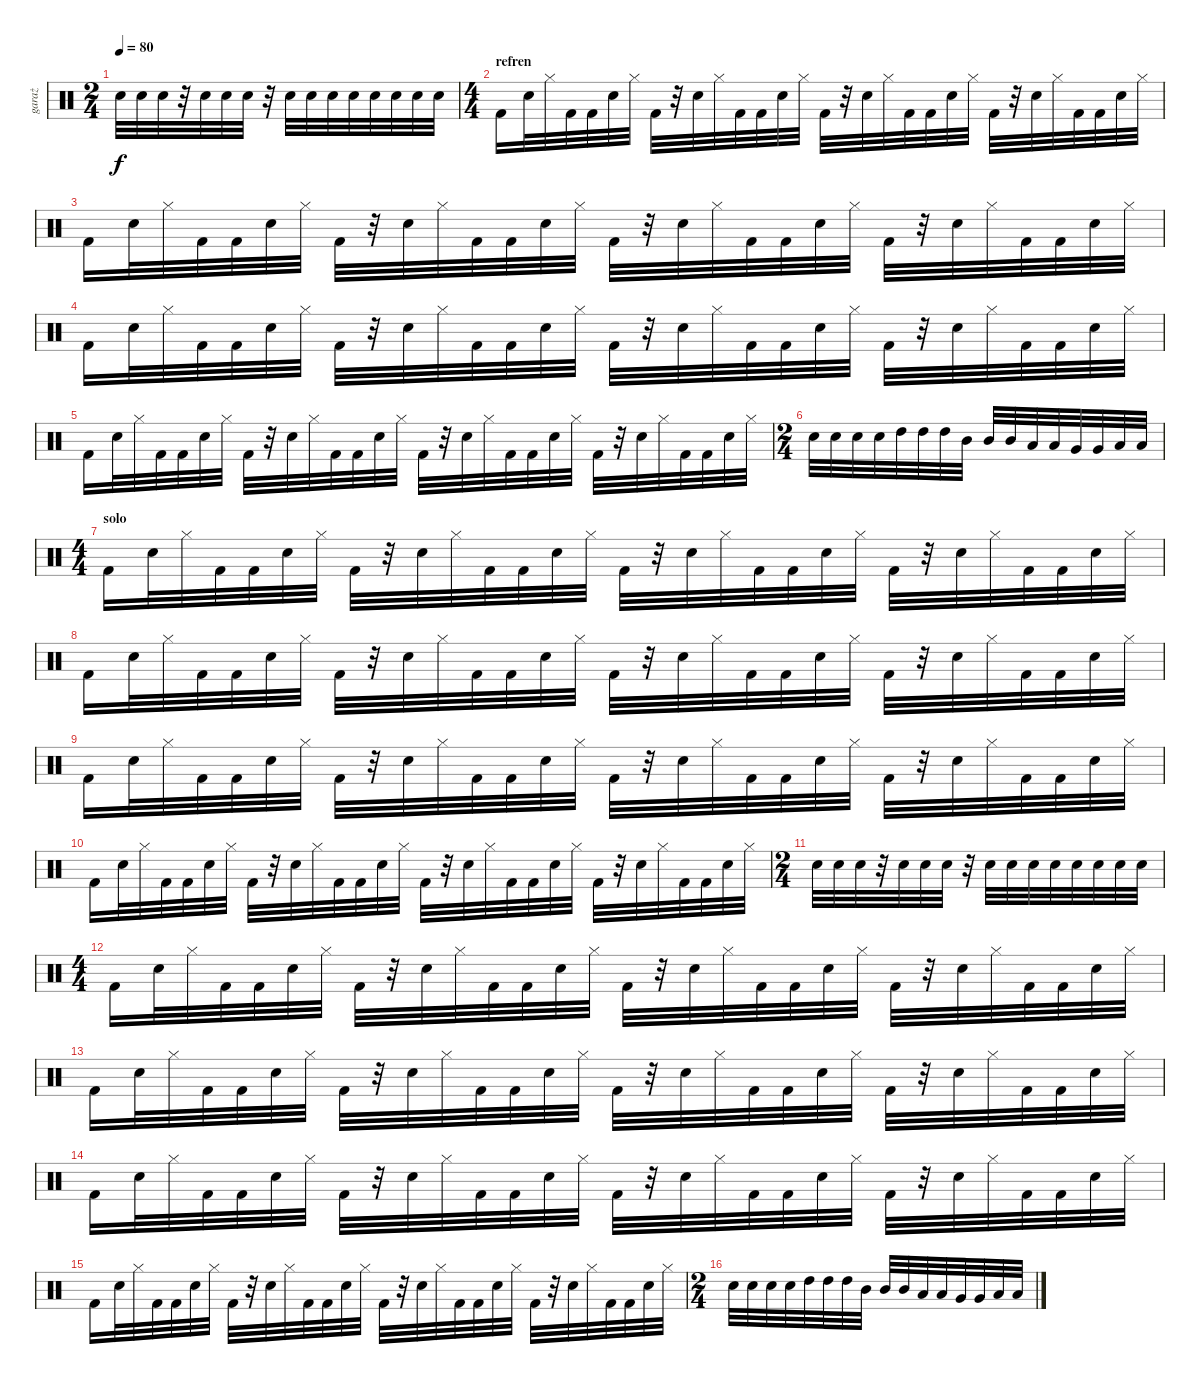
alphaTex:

\track ("garaż" "garaż") {instrument percussion}
\staff {score}
\articulation defaults
\ts (2 4)
\tempo 80
\clef neutral
\ks c "Snare (hit) 2".32{dy f} "Snare (hit) 2".32 "Snare (hit) 2".32
r.32 "Snare (hit) 2".32 "Snare (hit) 2".32 "Snare (hit) 2".32 r.32 "Snare (hit) 2".32 "Snare (hit) 2".32 "Snare (hit) 2".32 "Snare (hit) 2".32 "Snare (hit) 2".32 "Snare (hit) 2".32 "Snare (hit) 2".32 "Snare (hit) 2".32 |
\ts (4 4)
\section ("" "refren")
"Kick (hit) 2".16 "Snare (hit) 2".32 "Hi-Hat (closed)".32 "Kick (hit) 2".32 "Kick (hit) 2".32 "Snare (hit) 2".32 "Hi-Hat (closed)".32 "Kick (hit) 2".32 r.32 "Snare (hit) 2".32 "Hi-Hat (closed)".32 "Kick (hit) 2".32 "Kick (hit) 2".32 "Snare (hit) 2".32 "Hi-Hat (closed)".32 "Kick (hit) 2".32 r.32 "Snare (hit) 2".32 "Hi-Hat (closed)".32 "Kick (hit) 2".32 "Kick (hit) 2".32 "Snare (hit) 2".32 "Hi-Hat (closed)".32 "Kick (hit) 2".32 r.32 "Snare (hit) 2".32 "Hi-Hat (closed)".32 "Kick (hit) 2".32 "Kick (hit) 2".32 "Snare (hit) 2".32 "Hi-Hat (closed)".32 |
"Kick (hit) 2".16 "Snare (hit) 2".32 "Hi-Hat (closed)".32 "Kick (hit) 2".32 "Kick (hit) 2".32 "Snare (hit) 2".32 "Hi-Hat (closed)".32 "Kick (hit) 2".32 r.32 "Snare (hit) 2".32 "Hi-Hat (closed)".32 "Kick (hit) 2".32 "Kick (hit) 2".32 "Snare (hit) 2".32 "Hi-Hat (closed)".32 "Kick (hit) 2".32 r.32 "Snare (hit) 2".32 "Hi-Hat (closed)".32 "Kick (hit) 2".32 "Kick (hit) 2".32 "Snare (hit) 2".32 "Hi-Hat (closed)".32 "Kick (hit) 2".32 r.32 "Snare (hit) 2".32 "Hi-Hat (closed)".32 "Kick (hit) 2".32 "Kick (hit) 2".32 "Snare (hit) 2".32 "Hi-Hat (closed)".32 |
"Kick (hit) 2".16 "Snare (hit) 2".32 "Hi-Hat (closed)".32 "Kick (hit) 2".32 "Kick (hit) 2".32 "Snare (hit) 2".32 "Hi-Hat (closed)".32 "Kick (hit) 2".32 r.32 "Snare (hit) 2".32 "Hi-Hat (closed)".32 "Kick (hit) 2".32 "Kick (hit) 2".32 "Snare (hit) 2".32 "Hi-Hat (closed)".32 "Kick (hit) 2".32 r.32 "Snare (hit) 2".32 "Hi-Hat (closed)".32 "Kick (hit) 2".32 "Kick (hit) 2".32 "Snare (hit) 2".32 "Hi-Hat (closed)".32 "Kick (hit) 2".32 r.32 "Snare (hit) 2".32 "Hi-Hat (closed)".32 "Kick (hit) 2".32 "Kick (hit) 2".32 "Snare (hit) 2".32 "Hi-Hat (closed)".32 |
"Kick (hit) 2".16 "Snare (hit) 2".32 "Hi-Hat (closed)".32 "Kick (hit) 2".32 "Kick (hit) 2".32 "Snare (hit) 2".32 "Hi-Hat (closed)".32 "Kick (hit) 2".32 r.32 "Snare (hit) 2".32 "Hi-Hat (closed)".32 "Kick (hit) 2".32 "Kick (hit) 2".32 "Snare (hit) 2".32 "Hi-Hat (closed)".32 "Kick (hit) 2".32 r.32 "Snare (hit) 2".32 "Hi-Hat (closed)".32 "Kick (hit) 2".32 "Kick (hit) 2".32 "Snare (hit) 2".32 "Hi-Hat (closed)".32 "Kick (hit) 2".32 r.32 "Snare (hit) 2".32 "Hi-Hat (closed)".32 "Kick (hit) 2".32 "Kick (hit) 2".32 "Snare (hit) 2".32 "Hi-Hat (closed)".32 |
\ts (2 4)
"Snare (hit) 2".32 "Snare (hit) 2".32 "Snare (hit) 2".32 "Snare (hit) 2".32 "High Tom (hit)".32 "High Tom (hit)".32 "High Tom (hit)".32 "Mid Tom (hit)".32 "Mid Tom (hit)".32 "Mid Tom (hit)".32 "Low Tom (hit)".32 "Low Tom (hit)".32 "Very Low Tom (hit)".32 "Very Low Tom (hit)".32 "Low Floor Tom (hit)".32 "Low Floor Tom (hit)".32 |
\ts (4 4)
\section ("" "solo")
"Kick (hit) 2".16 "Snare (hit) 2".32 "Hi-Hat (closed)".32 "Kick (hit) 2".32 "Kick (hit) 2".32 "Snare (hit) 2".32 "Hi-Hat (closed)".32 "Kick (hit) 2".32 r.32 "Snare (hit) 2".32 "Hi-Hat (closed)".32 "Kick (hit) 2".32 "Kick (hit) 2".32 "Snare (hit) 2".32 "Hi-Hat (closed)".32 "Kick (hit) 2".32 r.32 "Snare (hit) 2".32 "Hi-Hat (closed)".32 "Kick (hit) 2".32 "Kick (hit) 2".32 "Snare (hit) 2".32 "Hi-Hat (closed)".32 "Kick (hit) 2".32 r.32 "Snare (hit) 2".32 "Hi-Hat (closed)".32 "Kick (hit) 2".32 "Kick (hit) 2".32 "Snare (hit) 2".32 "Hi-Hat (closed)".32 |
"Kick (hit) 2".16 "Snare (hit) 2".32 "Hi-Hat (closed)".32 "Kick (hit) 2".32 "Kick (hit) 2".32 "Snare (hit) 2".32 "Hi-Hat (closed)".32 "Kick (hit) 2".32 r.32 "Snare (hit) 2".32 "Hi-Hat (closed)".32 "Kick (hit) 2".32 "Kick (hit) 2".32 "Snare (hit) 2".32 "Hi-Hat (closed)".32 "Kick (hit) 2".32 r.32 "Snare (hit) 2".32 "Hi-Hat (closed)".32 "Kick (hit) 2".32 "Kick (hit) 2".32 "Snare (hit) 2".32 "Hi-Hat (closed)".32 "Kick (hit) 2".32 r.32 "Snare (hit) 2".32 "Hi-Hat (closed)".32 "Kick (hit) 2".32 "Kick (hit) 2".32 "Snare (hit) 2".32 "Hi-Hat (closed)".32 |
"Kick (hit) 2".16 "Snare (hit) 2".32 "Hi-Hat (closed)".32 "Kick (hit) 2".32 "Kick (hit) 2".32 "Snare (hit) 2".32 "Hi-Hat (closed)".32 "Kick (hit) 2".32 r.32 "Snare (hit) 2".32 "Hi-Hat (closed)".32 "Kick (hit) 2".32 "Kick (hit) 2".32 "Snare (hit) 2".32 "Hi-Hat (closed)".32 "Kick (hit) 2".32 r.32 "Snare (hit) 2".32 "Hi-Hat (closed)".32 "Kick (hit) 2".32 "Kick (hit) 2".32 "Snare (hit) 2".32 "Hi-Hat (closed)".32 "Kick (hit) 2".32 r.32 "Snare (hit) 2".32 "Hi-Hat (closed)".32 "Kick (hit) 2".32 "Kick (hit) 2".32 "Snare (hit) 2".32 "Hi-Hat (closed)".32 |
"Kick (hit) 2".16 "Snare (hit) 2".32 "Hi-Hat (closed)".32 "Kick (hit) 2".32 "Kick (hit) 2".32 "Snare (hit) 2".32 "Hi-Hat (closed)".32 "Kick (hit) 2".32 r.32 "Snare (hit) 2".32 "Hi-Hat (closed)".32 "Kick (hit) 2".32 "Kick (hit) 2".32 "Snare (hit) 2".32 "Hi-Hat (closed)".32 "Kick (hit) 2".32 r.32 "Snare (hit) 2".32 "Hi-Hat (closed)".32 "Kick (hit) 2".32 "Kick (hit) 2".32 "Snare (hit) 2".32 "Hi-Hat (closed)".32 "Kick (hit) 2".32 r.32 "Snare (hit) 2".32 "Hi-Hat (closed)".32 "Kick (hit) 2".32 "Kick (hit) 2".32 "Snare (hit) 2".32 "Hi-Hat (closed)".32 |
\ts (2 4)
"Snare (hit) 2".32 "Snare (hit) 2".32 "Snare (hit) 2".32 r.32 "Snare (hit) 2".32 "Snare (hit) 2".32 "Snare (hit) 2".32 r.32 "Snare (hit) 2".32 "Snare (hit) 2".32 "Snare (hit) 2".32 "Snare (hit) 2".32 "Snare (hit) 2".32 "Snare (hit) 2".32 "Snare (hit) 2".32 "Snare (hit) 2".32 |
\ts (4 4)
"Kick (hit) 2".16 "Snare (hit) 2".32 "Hi-Hat (closed)".32 "Kick (hit) 2".32 "Kick (hit) 2".32 "Snare (hit) 2".32 "Hi-Hat (closed)".32 "Kick (hit) 2".32 r.32 "Snare (hit) 2".32 "Hi-Hat (closed)".32 "Kick (hit) 2".32 "Kick (hit) 2".32 "Snare (hit) 2".32 "Hi-Hat (closed)".32 "Kick (hit) 2".32 r.32 "Snare (hit) 2".32 "Hi-Hat (closed)".32 "Kick (hit) 2".32 "Kick (hit) 2".32 "Snare (hit) 2".32 "Hi-Hat (closed)".32 "Kick (hit) 2".32 r.32 "Snare (hit) 2".32 "Hi-Hat (closed)".32 "Kick (hit) 2".32 "Kick (hit) 2".32 "Snare (hit) 2".32 "Hi-Hat (closed)".32 |
"Kick (hit) 2".16 "Snare (hit) 2".32 "Hi-Hat (closed)".32 "Kick (hit) 2".32 "Kick (hit) 2".32 "Snare (hit) 2".32 "Hi-Hat (closed)".32 "Kick (hit) 2".32 r.32 "Snare (hit) 2".32 "Hi-Hat (closed)".32 "Kick (hit) 2".32 "Kick (hit) 2".32 "Snare (hit) 2".32 "Hi-Hat (closed)".32 "Kick (hit) 2".32 r.32 "Snare (hit) 2".32 "Hi-Hat (closed)".32 "Kick (hit) 2".32 "Kick (hit) 2".32 "Snare (hit) 2".32 "Hi-Hat (closed)".32 "Kick (hit) 2".32 r.32 "Snare (hit) 2".32 "Hi-Hat (closed)".32 "Kick (hit) 2".32 "Kick (hit) 2".32 "Snare (hit) 2".32 "Hi-Hat (closed)".32 |
"Kick (hit) 2".16 "Snare (hit) 2".32 "Hi-Hat (closed)".32 "Kick (hit) 2".32 "Kick (hit) 2".32 "Snare (hit) 2".32 "Hi-Hat (closed)".32 "Kick (hit) 2".32 r.32 "Snare (hit) 2".32 "Hi-Hat (closed)".32 "Kick (hit) 2".32 "Kick (hit) 2".32 "Snare (hit) 2".32 "Hi-Hat (closed)".32 "Kick (hit) 2".32 r.32 "Snare (hit) 2".32 "Hi-Hat (closed)".32 "Kick (hit) 2".32 "Kick (hit) 2".32 "Snare (hit) 2".32 "Hi-Hat (closed)".32 "Kick (hit) 2".32 r.32 "Snare (hit) 2".32 "Hi-Hat (closed)".32 "Kick (hit) 2".32 "Kick (hit) 2".32 "Snare (hit) 2".32 "Hi-Hat (closed)".32 |
"Kick (hit) 2".16 "Snare (hit) 2".32 "Hi-Hat (closed)".32 "Kick (hit) 2".32 "Kick (hit) 2".32 "Snare (hit) 2".32 "Hi-Hat (closed)".32 "Kick (hit) 2".32 r.32 "Snare (hit) 2".32 "Hi-Hat (closed)".32 "Kick (hit) 2".32 "Kick (hit) 2".32 "Snare (hit) 2".32 "Hi-Hat (closed)".32 "Kick (hit) 2".32 r.32 "Snare (hit) 2".32 "Hi-Hat (closed)".32 "Kick (hit) 2".32 "Kick (hit) 2".32 "Snare (hit) 2".32 "Hi-Hat (closed)".32 "Kick (hit) 2".32 r.32 "Snare (hit) 2".32 "Hi-Hat (closed)".32 "Kick (hit) 2".32 "Kick (hit) 2".32 "Snare (hit) 2".32 "Hi-Hat (closed)".32 |
\ts (2 4)
"Snare (hit) 2".32 "Snare (hit) 2".32 "Snare (hit) 2".32 "Snare (hit) 2".32 "High Tom (hit)".32 "High Tom (hit)".32 "High Tom (hit)".32 "Mid Tom (hit)".32 "Mid Tom (hit)".32 "Mid Tom (hit)".32 "Low Tom (hit)".32 "Low Tom (hit)".32 "Very Low Tom (hit)".32 "Very Low Tom (hit)".32 "Low Floor Tom (hit)".32 "Low Floor Tom (hit)".32
